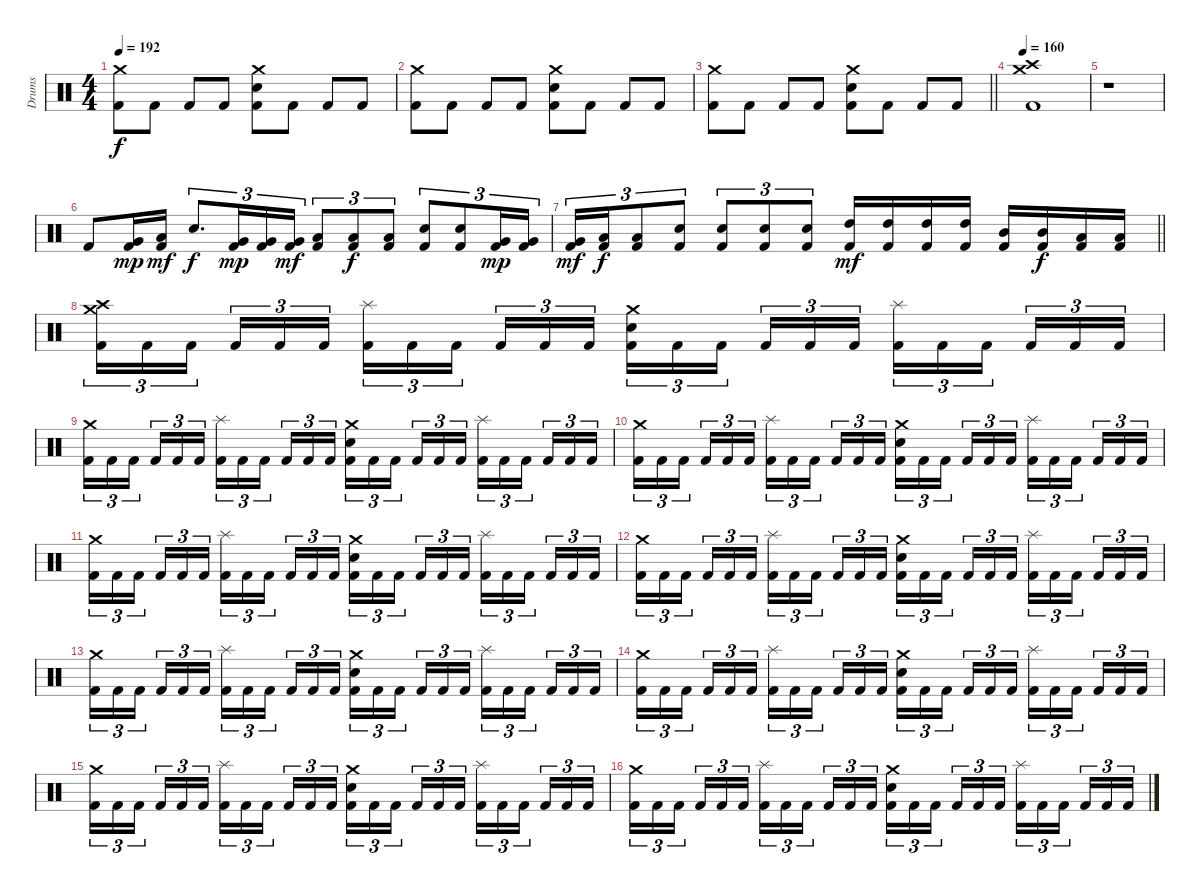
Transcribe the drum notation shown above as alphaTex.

\track ("Drums" "Drums") {instrument percussion}
\staff {score}
\articulation defaults
\ts (4 4)
\tempo 192
\clef neutral
\ks c
("Crash medium (hit)" "Kick (hit) 2").8{dy f} "Kick (hit) 2".8 "Kick (hit) 2".8 "Kick (hit) 2".8 ("Crash medium (hit)" "Snare (hit) 2" "Kick (hit) 2").8 "Kick (hit) 2".8 "Kick (hit) 2".8 "Kick (hit) 2".8 |
("Crash medium (hit)" "Kick (hit) 2").8 "Kick (hit) 2".8 "Kick (hit) 2".8 "Kick (hit) 2".8 ("Crash medium (hit)" "Snare (hit) 2" "Kick (hit) 2").8 "Kick (hit) 2".8 "Kick (hit) 2".8 "Kick (hit) 2".8 |
\barLineRight lightlight
("Crash medium (hit)" "Kick (hit) 2").8 "Kick (hit) 2".8 "Kick (hit) 2".8 "Kick (hit) 2".8 ("Crash medium (hit)" "Snare (hit) 2" "Kick (hit) 2").8 "Kick (hit) 2".8 "Kick (hit) 2".8 "Kick (hit) 2".8 |
\section ("" "")
\tempo 160
("Crash medium (hit)" "Crash high (hit)" "Kick (hit) 2").1 |
r.1 |
"Kick (hit) 2".8 ("Very Low Tom (hit)" "Kick (hit) 2").16{dy mp} ("Low Tom (hit)" "Kick (hit) 2").16{dy mf} "Snare (hit) 2".8{d tu (3 2) dy f} ("Very Low Tom (hit)" "Kick (hit) 2").16{tu (3 2) dy mp} ("Very Low Tom (hit)" "Kick (hit) 2").16{tu (3 2)} ("Very Low Tom (hit)" "Kick (hit) 2").16{tu (3 2) dy mf} ("Low Tom (hit)" "Kick (hit) 2").8{tu (3 2)} ("Low Tom (hit)" "Kick (hit) 2").8{tu (3 2) dy f} ("Low Tom (hit)" "Kick (hit) 2").8{tu (3 2)} ("Snare (hit) 2" "Kick (hit) 2").8{tu (3 2)} ("Snare (hit) 2" "Kick (hit) 2").8{tu (3 2)} ("Very Low Tom (hit)" "Kick (hit) 2").16{tu (3 2) dy mp} ("Very Low Tom (hit)" "Kick (hit) 2").16{tu (3 2)} |
\barLineRight lightlight
("Very Low Tom (hit)" "Kick (hit) 2").16{tu (3 2) dy mf} ("Low Tom (hit)" "Kick (hit) 2").16{tu (3 2) dy f} ("Low Tom (hit)" "Kick (hit) 2").8{tu (3 2)} ("Snare (hit) 2" "Kick (hit) 2").8{tu (3 2)} ("Snare (hit) 2" "Kick (hit) 2").8{tu (3 2)} ("Snare (hit) 2" "Kick (hit) 2").8{tu (3 2)} ("Snare (hit) 2" "Kick (hit) 2").8{tu (3 2)} ("High Tom (hit)" "Kick (hit) 2").16{dy mf} ("High Tom (hit)" "Kick (hit) 2").16 ("High Tom (hit)" "Kick (hit) 2").16 ("High Tom (hit)" "Kick (hit) 2").16 ("Mid Tom (hit)" "Kick (hit) 2").16 ("Mid Tom (hit)" "Kick (hit) 2").16{dy f} ("Low Tom (hit)" "Kick (hit) 2").16 ("Low Tom (hit)" "Kick (hit) 2").16 |
\section ("" "")
("Crash medium (hit)" "Crash high (hit)" "Kick (hit) 2").16{tu (3 2)} "Kick (hit) 2".16{tu (3 2)} "Kick (hit) 2".16{tu (3 2) beam splitsecondary} "Kick (hit) 2".16{tu (3 2)} "Kick (hit) 2".16{tu (3 2)} "Kick (hit) 2".16{tu (3 2)} ("Splash (hit)" "Kick (hit) 2").16{tu (3 2)} "Kick (hit) 2".16{tu (3 2)} "Kick (hit) 2".16{tu (3 2) beam splitsecondary} "Kick (hit) 2".16{tu (3 2)} "Kick (hit) 2".16{tu (3 2)} "Kick (hit) 2".16{tu (3 2)} ("Crash medium (hit)" "Snare (hit) 2" "Kick (hit) 2").16{tu (3 2)} "Kick (hit) 2".16{tu (3 2)} "Kick (hit) 2".16{tu (3 2) beam splitsecondary} "Kick (hit) 2".16{tu (3 2)} "Kick (hit) 2".16{tu (3 2)} "Kick (hit) 2".16{tu (3 2)} ("Splash (hit)" "Kick (hit) 2").16{tu (3 2)} "Kick (hit) 2".16{tu (3 2)} "Kick (hit) 2".16{tu (3 2) beam splitsecondary} "Kick (hit) 2".16{tu (3 2)} "Kick (hit) 2".16{tu (3 2)} "Kick (hit) 2".16{tu (3 2)} |
("Crash medium (hit)" "Kick (hit) 2").16{tu (3 2)} "Kick (hit) 2".16{tu (3 2)} "Kick (hit) 2".16{tu (3 2) beam splitsecondary} "Kick (hit) 2".16{tu (3 2)} "Kick (hit) 2".16{tu (3 2)} "Kick (hit) 2".16{tu (3 2)} ("Splash (hit)" "Kick (hit) 2").16{tu (3 2)} "Kick (hit) 2".16{tu (3 2)} "Kick (hit) 2".16{tu (3 2) beam splitsecondary} "Kick (hit) 2".16{tu (3 2)} "Kick (hit) 2".16{tu (3 2)} "Kick (hit) 2".16{tu (3 2)} ("Crash medium (hit)" "Snare (hit) 2" "Kick (hit) 2").16{tu (3 2)} "Kick (hit) 2".16{tu (3 2)} "Kick (hit) 2".16{tu (3 2) beam splitsecondary} "Kick (hit) 2".16{tu (3 2)} "Kick (hit) 2".16{tu (3 2)} "Kick (hit) 2".16{tu (3 2)} ("Splash (hit)" "Kick (hit) 2").16{tu (3 2)} "Kick (hit) 2".16{tu (3 2)} "Kick (hit) 2".16{tu (3 2) beam splitsecondary} "Kick (hit) 2".16{tu (3 2)} "Kick (hit) 2".16{tu (3 2)} "Kick (hit) 2".16{tu (3 2)} |
("Crash medium (hit)" "Kick (hit) 2").16{tu (3 2)} "Kick (hit) 2".16{tu (3 2)} "Kick (hit) 2".16{tu (3 2) beam splitsecondary} "Kick (hit) 2".16{tu (3 2)} "Kick (hit) 2".16{tu (3 2)} "Kick (hit) 2".16{tu (3 2)} ("Splash (hit)" "Kick (hit) 2").16{tu (3 2)} "Kick (hit) 2".16{tu (3 2)} "Kick (hit) 2".16{tu (3 2) beam splitsecondary} "Kick (hit) 2".16{tu (3 2)} "Kick (hit) 2".16{tu (3 2)} "Kick (hit) 2".16{tu (3 2)} ("Crash medium (hit)" "Snare (hit) 2" "Kick (hit) 2").16{tu (3 2)} "Kick (hit) 2".16{tu (3 2)} "Kick (hit) 2".16{tu (3 2) beam splitsecondary} "Kick (hit) 2".16{tu (3 2)} "Kick (hit) 2".16{tu (3 2)} "Kick (hit) 2".16{tu (3 2)} ("Splash (hit)" "Kick (hit) 2").16{tu (3 2)} "Kick (hit) 2".16{tu (3 2)} "Kick (hit) 2".16{tu (3 2) beam splitsecondary} "Kick (hit) 2".16{tu (3 2)} "Kick (hit) 2".16{tu (3 2)} "Kick (hit) 2".16{tu (3 2)} |
("Crash medium (hit)" "Kick (hit) 2").16{tu (3 2)} "Kick (hit) 2".16{tu (3 2)} "Kick (hit) 2".16{tu (3 2) beam splitsecondary} "Kick (hit) 2".16{tu (3 2)} "Kick (hit) 2".16{tu (3 2)} "Kick (hit) 2".16{tu (3 2)} ("Splash (hit)" "Kick (hit) 2").16{tu (3 2)} "Kick (hit) 2".16{tu (3 2)} "Kick (hit) 2".16{tu (3 2) beam splitsecondary} "Kick (hit) 2".16{tu (3 2)} "Kick (hit) 2".16{tu (3 2)} "Kick (hit) 2".16{tu (3 2)} ("Crash medium (hit)" "Snare (hit) 2" "Kick (hit) 2").16{tu (3 2)} "Kick (hit) 2".16{tu (3 2)} "Kick (hit) 2".16{tu (3 2) beam splitsecondary} "Kick (hit) 2".16{tu (3 2)} "Kick (hit) 2".16{tu (3 2)} "Kick (hit) 2".16{tu (3 2)} ("Splash (hit)" "Kick (hit) 2").16{tu (3 2)} "Kick (hit) 2".16{tu (3 2)} "Kick (hit) 2".16{tu (3 2) beam splitsecondary} "Kick (hit) 2".16{tu (3 2)} "Kick (hit) 2".16{tu (3 2)} "Kick (hit) 2".16{tu (3 2)} |
("Crash medium (hit)" "Kick (hit) 2").16{tu (3 2)} "Kick (hit) 2".16{tu (3 2)} "Kick (hit) 2".16{tu (3 2) beam splitsecondary} "Kick (hit) 2".16{tu (3 2)} "Kick (hit) 2".16{tu (3 2)} "Kick (hit) 2".16{tu (3 2)} ("Splash (hit)" "Kick (hit) 2").16{tu (3 2)} "Kick (hit) 2".16{tu (3 2)} "Kick (hit) 2".16{tu (3 2) beam splitsecondary} "Kick (hit) 2".16{tu (3 2)} "Kick (hit) 2".16{tu (3 2)} "Kick (hit) 2".16{tu (3 2)} ("Crash medium (hit)" "Snare (hit) 2" "Kick (hit) 2").16{tu (3 2)} "Kick (hit) 2".16{tu (3 2)} "Kick (hit) 2".16{tu (3 2) beam splitsecondary} "Kick (hit) 2".16{tu (3 2)} "Kick (hit) 2".16{tu (3 2)} "Kick (hit) 2".16{tu (3 2)} ("Splash (hit)" "Kick (hit) 2").16{tu (3 2)} "Kick (hit) 2".16{tu (3 2)} "Kick (hit) 2".16{tu (3 2) beam splitsecondary} "Kick (hit) 2".16{tu (3 2)} "Kick (hit) 2".16{tu (3 2)} "Kick (hit) 2".16{tu (3 2)} |
("Crash medium (hit)" "Kick (hit) 2").16{tu (3 2)} "Kick (hit) 2".16{tu (3 2)} "Kick (hit) 2".16{tu (3 2) beam splitsecondary} "Kick (hit) 2".16{tu (3 2)} "Kick (hit) 2".16{tu (3 2)} "Kick (hit) 2".16{tu (3 2)} ("Splash (hit)" "Kick (hit) 2").16{tu (3 2)} "Kick (hit) 2".16{tu (3 2)} "Kick (hit) 2".16{tu (3 2) beam splitsecondary} "Kick (hit) 2".16{tu (3 2)} "Kick (hit) 2".16{tu (3 2)} "Kick (hit) 2".16{tu (3 2)} ("Crash medium (hit)" "Snare (hit) 2" "Kick (hit) 2").16{tu (3 2)} "Kick (hit) 2".16{tu (3 2)} "Kick (hit) 2".16{tu (3 2) beam splitsecondary} "Kick (hit) 2".16{tu (3 2)} "Kick (hit) 2".16{tu (3 2)} "Kick (hit) 2".16{tu (3 2)} ("Splash (hit)" "Kick (hit) 2").16{tu (3 2)} "Kick (hit) 2".16{tu (3 2)} "Kick (hit) 2".16{tu (3 2) beam splitsecondary} "Kick (hit) 2".16{tu (3 2)} "Kick (hit) 2".16{tu (3 2)} "Kick (hit) 2".16{tu (3 2)} |
("Crash medium (hit)" "Kick (hit) 2").16{tu (3 2)} "Kick (hit) 2".16{tu (3 2)} "Kick (hit) 2".16{tu (3 2) beam splitsecondary} "Kick (hit) 2".16{tu (3 2)} "Kick (hit) 2".16{tu (3 2)} "Kick (hit) 2".16{tu (3 2)} ("Splash (hit)" "Kick (hit) 2").16{tu (3 2)} "Kick (hit) 2".16{tu (3 2)} "Kick (hit) 2".16{tu (3 2) beam splitsecondary} "Kick (hit) 2".16{tu (3 2)} "Kick (hit) 2".16{tu (3 2)} "Kick (hit) 2".16{tu (3 2)} ("Crash medium (hit)" "Snare (hit) 2" "Kick (hit) 2").16{tu (3 2)} "Kick (hit) 2".16{tu (3 2)} "Kick (hit) 2".16{tu (3 2) beam splitsecondary} "Kick (hit) 2".16{tu (3 2)} "Kick (hit) 2".16{tu (3 2)} "Kick (hit) 2".16{tu (3 2)} ("Splash (hit)" "Kick (hit) 2").16{tu (3 2)} "Kick (hit) 2".16{tu (3 2)} "Kick (hit) 2".16{tu (3 2) beam splitsecondary} "Kick (hit) 2".16{tu (3 2)} "Kick (hit) 2".16{tu (3 2)} "Kick (hit) 2".16{tu (3 2)} |
("Crash medium (hit)" "Kick (hit) 2").16{tu (3 2)} "Kick (hit) 2".16{tu (3 2)} "Kick (hit) 2".16{tu (3 2) beam splitsecondary} "Kick (hit) 2".16{tu (3 2)} "Kick (hit) 2".16{tu (3 2)} "Kick (hit) 2".16{tu (3 2)} ("Splash (hit)" "Kick (hit) 2").16{tu (3 2)} "Kick (hit) 2".16{tu (3 2)} "Kick (hit) 2".16{tu (3 2) beam splitsecondary} "Kick (hit) 2".16{tu (3 2)} "Kick (hit) 2".16{tu (3 2)} "Kick (hit) 2".16{tu (3 2)} ("Crash medium (hit)" "Snare (hit) 2" "Kick (hit) 2").16{tu (3 2)} "Kick (hit) 2".16{tu (3 2)} "Kick (hit) 2".16{tu (3 2) beam splitsecondary} "Kick (hit) 2".16{tu (3 2)} "Kick (hit) 2".16{tu (3 2)} "Kick (hit) 2".16{tu (3 2)} ("Splash (hit)" "Kick (hit) 2").16{tu (3 2)} "Kick (hit) 2".16{tu (3 2)} "Kick (hit) 2".16{tu (3 2) beam splitsecondary} "Kick (hit) 2".16{tu (3 2)} "Kick (hit) 2".16{tu (3 2)} "Kick (hit) 2".16{tu (3 2)} |
("Crash medium (hit)" "Kick (hit) 2").16{tu (3 2)} "Kick (hit) 2".16{tu (3 2)} "Kick (hit) 2".16{tu (3 2) beam splitsecondary} "Kick (hit) 2".16{tu (3 2)} "Kick (hit) 2".16{tu (3 2)} "Kick (hit) 2".16{tu (3 2)} ("Splash (hit)" "Kick (hit) 2").16{tu (3 2)} "Kick (hit) 2".16{tu (3 2)} "Kick (hit) 2".16{tu (3 2) beam splitsecondary} "Kick (hit) 2".16{tu (3 2)} "Kick (hit) 2".16{tu (3 2)} "Kick (hit) 2".16{tu (3 2)} ("Crash medium (hit)" "Snare (hit) 2" "Kick (hit) 2").16{tu (3 2)} "Kick (hit) 2".16{tu (3 2)} "Kick (hit) 2".16{tu (3 2) beam splitsecondary} "Kick (hit) 2".16{tu (3 2)} "Kick (hit) 2".16{tu (3 2)} "Kick (hit) 2".16{tu (3 2)} ("Splash (hit)" "Kick (hit) 2").16{tu (3 2)} "Kick (hit) 2".16{tu (3 2)} "Kick (hit) 2".16{tu (3 2) beam splitsecondary} "Kick (hit) 2".16{tu (3 2)} "Kick (hit) 2".16{tu (3 2)} "Kick (hit) 2".16{tu (3 2)}
